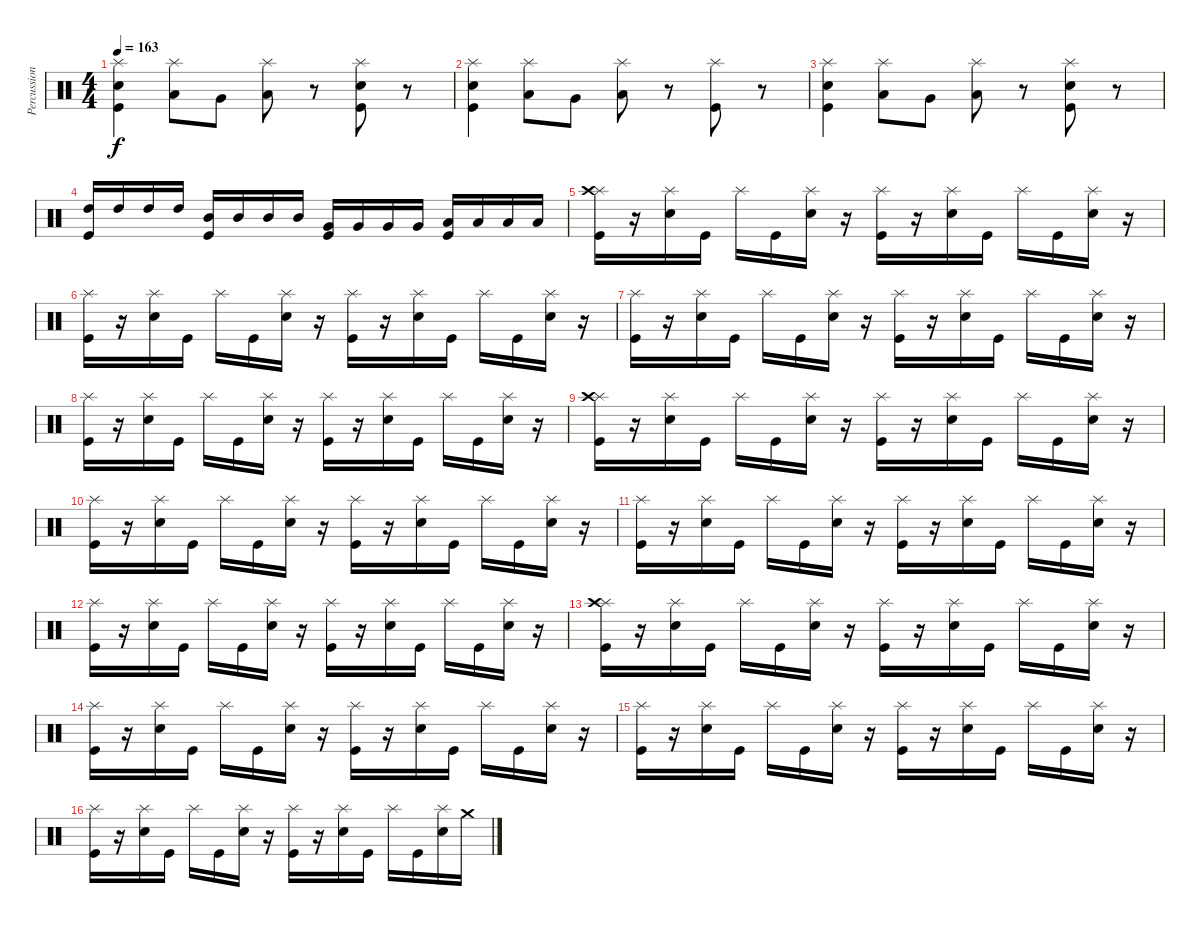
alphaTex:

\track ("Percussions" "Percussion") {instrument percussion}
\staff {score}
\articulation defaults
\ts (4 4)
\tempo 163
\clef neutral
\ks c
("Splash (hit)" "Snare (hit) 2" "Kick (hit)").4{dy f} ("Splash (hit)" "Low Floor Tom (hit)").8 "Very Low Tom (hit)".8 ("Splash (hit)" "Low Floor Tom (hit)").8 r.8 ("Splash (hit)" "Snare (hit) 2" "Kick (hit)").8 r.8 |
("Splash (hit)" "Snare (hit) 2" "Kick (hit)").4 ("Splash (hit)" "Low Floor Tom (hit)").8 "Very Low Tom (hit)".8 ("Splash (hit)" "Low Floor Tom (hit)").8 r.8 ("Splash (hit)" "Kick (hit)").8 r.8 |
("Splash (hit)" "Snare (hit) 2" "Kick (hit)").4 ("Splash (hit)" "Low Floor Tom (hit)").8 "Very Low Tom (hit)".8 ("Splash (hit)" "Low Floor Tom (hit)").8 r.8 ("Splash (hit)" "Snare (hit) 2" "Kick (hit)").8 r.8 |
("High Tom (hit)" "Kick (hit)").16 "High Tom (hit)".16 "High Tom (hit)".16 "High Tom (hit)".16 ("Mid Tom (hit)" "Kick (hit)").16 "Mid Tom (hit)".16 "Mid Tom (hit)".16 "Mid Tom (hit)".16 ("Very Low Tom (hit)" "Kick (hit)").16 "Very Low Tom (hit)".16 "Very Low Tom (hit)".16 "Very Low Tom (hit)".16 ("Low Floor Tom (hit)" "Kick (hit)").16 "Low Floor Tom (hit)".16 "Low Floor Tom (hit)".16 "Low Floor Tom (hit)".16 |
("Splash (hit)" "Crash high (hit)" "Kick (hit)").16 r.16 ("Splash (hit)" "Snare (hit) 2").16 "Kick (hit)".16 "Splash (hit)".16 "Kick (hit)".16 ("Splash (hit)" "Snare (hit) 2").16 r.16 ("Splash (hit)" "Kick (hit)").16 r.16 ("Splash (hit)" "Snare (hit) 2").16 "Kick (hit)".16 "Splash (hit)".16 "Kick (hit)".16 ("Splash (hit)" "Snare (hit) 2").16 r.16 |
("Splash (hit)" "Kick (hit)").16 r.16 ("Splash (hit)" "Snare (hit) 2").16 "Kick (hit)".16 "Splash (hit)".16 "Kick (hit)".16 ("Splash (hit)" "Snare (hit) 2").16 r.16 ("Splash (hit)" "Kick (hit)").16 r.16 ("Splash (hit)" "Snare (hit) 2").16 "Kick (hit)".16 "Splash (hit)".16 "Kick (hit)".16 ("Splash (hit)" "Snare (hit) 2").16 r.16 |
("Splash (hit)" "Kick (hit)").16 r.16 ("Splash (hit)" "Snare (hit) 2").16 "Kick (hit)".16 "Splash (hit)".16 "Kick (hit)".16 ("Splash (hit)" "Snare (hit) 2").16 r.16 ("Splash (hit)" "Kick (hit)").16 r.16 ("Splash (hit)" "Snare (hit) 2").16 "Kick (hit)".16 "Splash (hit)".16 "Kick (hit)".16 ("Splash (hit)" "Snare (hit) 2").16 r.16 |
("Splash (hit)" "Kick (hit)").16 r.16 ("Splash (hit)" "Snare (hit) 2").16 "Kick (hit)".16 "Splash (hit)".16 "Kick (hit)".16 ("Splash (hit)" "Snare (hit) 2").16 r.16 ("Splash (hit)" "Kick (hit)").16 r.16 ("Splash (hit)" "Snare (hit) 2").16 "Kick (hit)".16 "Splash (hit)".16 "Kick (hit)".16 ("Splash (hit)" "Snare (hit) 2").16 r.16 |
("Splash (hit)" "Crash high (hit)" "Kick (hit)").16 r.16 ("Splash (hit)" "Snare (hit) 2").16 "Kick (hit)".16 "Splash (hit)".16 "Kick (hit)".16 ("Splash (hit)" "Snare (hit) 2").16 r.16 ("Splash (hit)" "Kick (hit)").16 r.16 ("Splash (hit)" "Snare (hit) 2").16 "Kick (hit)".16 "Splash (hit)".16 "Kick (hit)".16 ("Splash (hit)" "Snare (hit) 2").16 r.16 |
("Splash (hit)" "Kick (hit)").16 r.16 ("Splash (hit)" "Snare (hit) 2").16 "Kick (hit)".16 "Splash (hit)".16 "Kick (hit)".16 ("Splash (hit)" "Snare (hit) 2").16 r.16 ("Splash (hit)" "Kick (hit)").16 r.16 ("Splash (hit)" "Snare (hit) 2").16 "Kick (hit)".16 "Splash (hit)".16 "Kick (hit)".16 ("Splash (hit)" "Snare (hit) 2").16 r.16 |
("Splash (hit)" "Kick (hit)").16 r.16 ("Splash (hit)" "Snare (hit) 2").16 "Kick (hit)".16 "Splash (hit)".16 "Kick (hit)".16 ("Splash (hit)" "Snare (hit) 2").16 r.16 ("Splash (hit)" "Kick (hit)").16 r.16 ("Splash (hit)" "Snare (hit) 2").16 "Kick (hit)".16 "Splash (hit)".16 "Kick (hit)".16 ("Splash (hit)" "Snare (hit) 2").16 r.16 |
("Splash (hit)" "Kick (hit)").16 r.16 ("Splash (hit)" "Snare (hit) 2").16 "Kick (hit)".16 "Splash (hit)".16 "Kick (hit)".16 ("Splash (hit)" "Snare (hit) 2").16 r.16 ("Splash (hit)" "Kick (hit)").16 r.16 ("Splash (hit)" "Snare (hit) 2").16 "Kick (hit)".16 "Splash (hit)".16 "Kick (hit)".16 ("Splash (hit)" "Snare (hit) 2").16 r.16 |
("Splash (hit)" "Crash high (hit)" "Kick (hit)").16 r.16 ("Splash (hit)" "Snare (hit) 2").16 "Kick (hit)".16 "Splash (hit)".16 "Kick (hit)".16 ("Splash (hit)" "Snare (hit) 2").16 r.16 ("Splash (hit)" "Kick (hit)").16 r.16 ("Splash (hit)" "Snare (hit) 2").16 "Kick (hit)".16 "Splash (hit)".16 "Kick (hit)".16 ("Splash (hit)" "Snare (hit) 2").16 r.16 |
("Splash (hit)" "Kick (hit)").16 r.16 ("Splash (hit)" "Snare (hit) 2").16 "Kick (hit)".16 "Splash (hit)".16 "Kick (hit)".16 ("Splash (hit)" "Snare (hit) 2").16 r.16 ("Splash (hit)" "Kick (hit)").16 r.16 ("Splash (hit)" "Snare (hit) 2").16 "Kick (hit)".16 "Splash (hit)".16 "Kick (hit)".16 ("Splash (hit)" "Snare (hit) 2").16 r.16 |
("Splash (hit)" "Kick (hit)").16 r.16 ("Splash (hit)" "Snare (hit) 2").16 "Kick (hit)".16 "Splash (hit)".16 "Kick (hit)".16 ("Splash (hit)" "Snare (hit) 2").16 r.16 ("Splash (hit)" "Kick (hit)").16 r.16 ("Splash (hit)" "Snare (hit) 2").16 "Kick (hit)".16 "Splash (hit)".16 "Kick (hit)".16 ("Splash (hit)" "Snare (hit) 2").16 r.16 |
("Splash (hit)" "Kick (hit)").16 r.16 ("Splash (hit)" "Snare (hit) 2").16 "Kick (hit)".16 "Splash (hit)".16 "Kick (hit)".16 ("Splash (hit)" "Snare (hit) 2").16 r.16 ("Splash (hit)" "Kick (hit)").16 r.16 ("Splash (hit)" "Snare (hit) 2").16 "Kick (hit)".16 "Splash (hit)".16 "Kick (hit)".16 ("Splash (hit)" "Snare (hit) 2").16 "Crash medium (hit)".16
